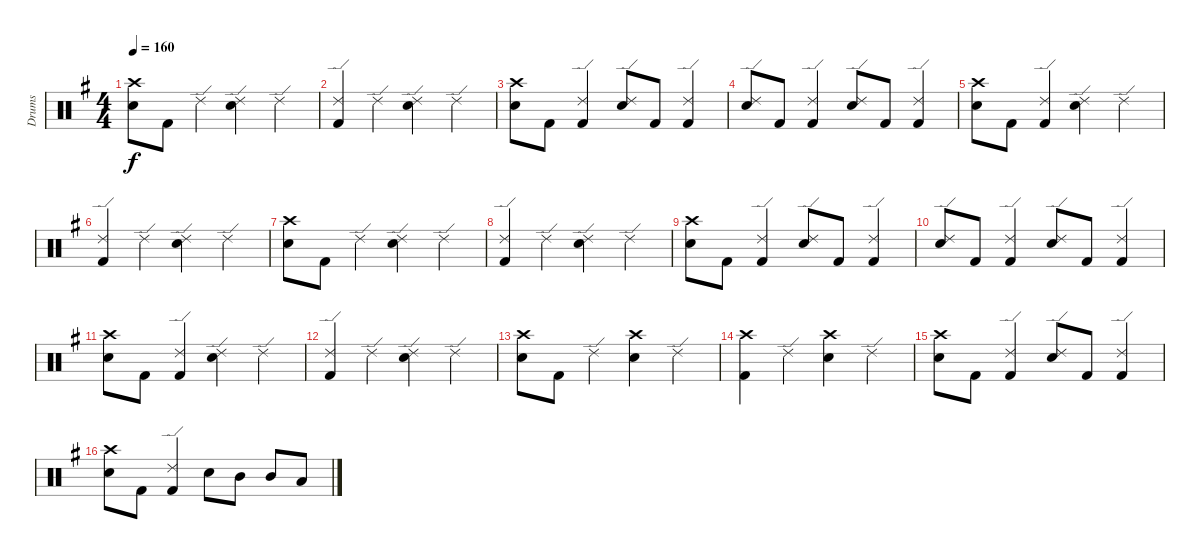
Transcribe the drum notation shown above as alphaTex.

\track ("Drums" "Drums") {instrument percussion}
\staff {score}
\articulation defaults
\ts (4 4)
\tempo 160
\clef neutral
\ks g
("Crash high (hit)" "Electric Snare (hit)").8{dy f} "Kick (hit) 2".8 "Ride (edge) 2".4 ("Ride (edge) 2" "Electric Snare (hit)").4 "Ride (edge) 2".4 |
("Ride (edge) 2" "Kick (hit) 2").4 "Ride (edge) 2".4 ("Ride (edge) 2" "Electric Snare (hit)").4 "Ride (edge) 2".4 |
("Crash high (hit)" "Electric Snare (hit)").8 "Kick (hit) 2".8 ("Ride (edge) 2" "Kick (hit) 2").4 ("Ride (edge) 2" "Electric Snare (hit)").8 "Kick (hit) 2".8 ("Ride (edge) 2" "Kick (hit) 2").4 |
("Ride (edge) 2" "Electric Snare (hit)").8 "Kick (hit) 2".8 ("Ride (edge) 2" "Kick (hit) 2").4 ("Ride (edge) 2" "Electric Snare (hit)").8 "Kick (hit) 2".8 ("Ride (edge) 2" "Kick (hit) 2").4 |
("Crash high (hit)" "Electric Snare (hit)").8 "Kick (hit) 2".8 ("Ride (edge) 2" "Kick (hit) 2").4 ("Ride (edge) 2" "Electric Snare (hit)").4 "Ride (edge) 2".4 |
("Ride (edge) 2" "Kick (hit) 2").4 "Ride (edge) 2".4 ("Ride (edge) 2" "Electric Snare (hit)").4 "Ride (edge) 2".4 |
("Crash high (hit)" "Electric Snare (hit)").8 "Kick (hit) 2".8 "Ride (edge) 2".4 ("Ride (edge) 2" "Electric Snare (hit)").4 "Ride (edge) 2".4 |
("Ride (edge) 2" "Kick (hit) 2").4 "Ride (edge) 2".4 ("Ride (edge) 2" "Electric Snare (hit)").4 "Ride (edge) 2".4 |
("Crash high (hit)" "Electric Snare (hit)").8 "Kick (hit) 2".8 ("Ride (edge) 2" "Kick (hit) 2").4 ("Ride (edge) 2" "Electric Snare (hit)").8 "Kick (hit) 2".8 ("Ride (edge) 2" "Kick (hit) 2").4 |
("Ride (edge) 2" "Electric Snare (hit)").8 "Kick (hit) 2".8 ("Ride (edge) 2" "Kick (hit) 2").4 ("Ride (edge) 2" "Electric Snare (hit)").8 "Kick (hit) 2".8 ("Ride (edge) 2" "Kick (hit) 2").4 |
("Crash high (hit)" "Electric Snare (hit)").8 "Kick (hit) 2".8 ("Ride (edge) 2" "Kick (hit) 2").4 ("Ride (edge) 2" "Electric Snare (hit)").4 "Ride (edge) 2".4 |
("Ride (edge) 2" "Kick (hit) 2").4 "Ride (edge) 2".4 ("Ride (edge) 2" "Electric Snare (hit)").4 "Ride (edge) 2".4 |
("Crash high (hit)" "Electric Snare (hit)").8 "Kick (hit) 2".8 "Ride (edge) 2".4 ("Crash high (hit)" "Electric Snare (hit)").4 "Ride (edge) 2".4 |
("Crash high (hit)" "Kick (hit) 2").4 "Ride (edge) 2".4 ("Crash high (hit)" "Electric Snare (hit)").4 "Ride (edge) 2".4 |
("Crash high (hit)" "Electric Snare (hit)").8 "Kick (hit) 2".8 ("Ride (edge) 2" "Kick (hit) 2").4 ("Ride (edge) 2" "Electric Snare (hit)").8 "Kick (hit) 2".8 ("Ride (edge) 2" "Kick (hit) 2").4 |
("Crash high (hit)" "Electric Snare (hit)").8 "Kick (hit) 2".8 ("Ride (edge) 2" "Kick (hit) 2").4 "Electric Snare (hit)".8 "Mid Tom (hit)".8 "Mid Tom (hit)".8 "Low Tom (hit)".8
